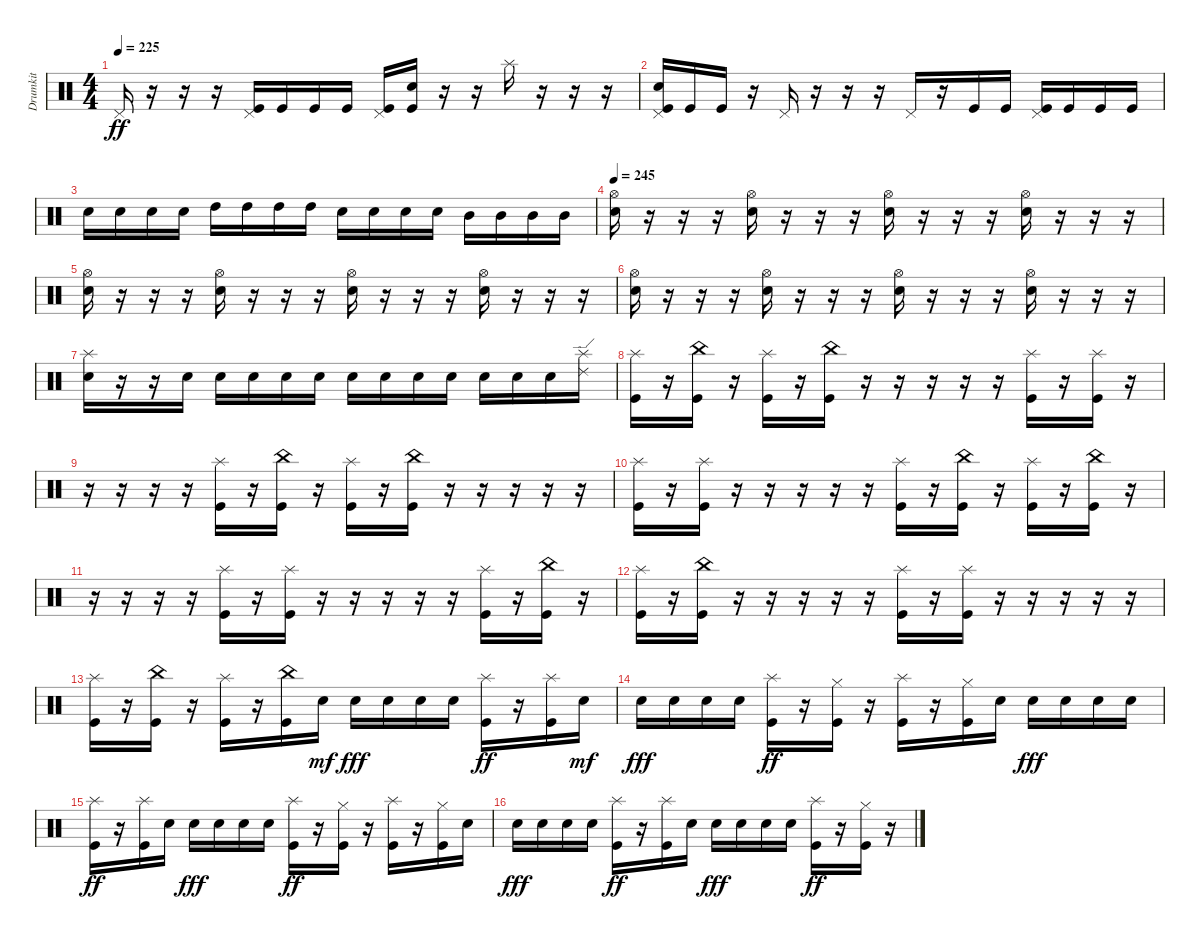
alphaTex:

\track ("Drumkit" "Drumkit") {instrument percussion}
\staff {score}
\articulation defaults
\ts (4 4)
\tempo 225
\clef neutral
\ks c "Pedal Hi-Hat (hit)".16{dy ff}
r.16 r.16 r.16 ("Pedal Hi-Hat (hit)" "Kick (hit)").16 "Kick (hit)".16 "Kick (hit)".16 "Kick (hit)".16 ("Pedal Hi-Hat (hit)" "Kick (hit)").16 ("Kick (hit)" "Snare (hit) 2").16 r.16 r.16 "Splash (hit)".16 r.16 r.16 r.16 |
("Kick (hit)" "Snare (hit) 2" "Pedal Hi-Hat (hit)").16 "Kick (hit)".16 "Kick (hit)".16 r.16 "Pedal Hi-Hat (hit)".16 r.16 r.16 r.16 "Pedal Hi-Hat (hit)".16 r.16 "Kick (hit)".16 "Kick (hit)".16 ("Kick (hit)" "Pedal Hi-Hat (hit)").16 "Kick (hit)".16 "Kick (hit)".16 "Kick (hit)".16 |
"Snare (hit) 2".16 "Snare (hit) 2".16 "Snare (hit) 2".16 "Snare (hit) 2".16 "High Tom (hit)".16 "High Tom (hit)".16 "High Tom (hit)".16 "High Tom (hit)".16 "Snare (hit) 2".16 "Snare (hit) 2".16 "Snare (hit) 2".16 "Snare (hit) 2".16 "Mid Tom (hit)".16 "Mid Tom (hit)".16 "Mid Tom (hit)".16 "Mid Tom (hit)".16 |
\tempo 245
("Hi-Hat (open)" "Snare (hit) 2").16 r.16 r.16 r.16 ("Hi-Hat (open)" "Snare (hit) 2").16 r.16 r.16 r.16 ("Hi-Hat (open)" "Snare (hit) 2").16 r.16 r.16 r.16 ("Hi-Hat (open)" "Snare (hit) 2").16 r.16 r.16 r.16 |
("Hi-Hat (open)" "Snare (hit) 2").16 r.16 r.16 r.16 ("Hi-Hat (open)" "Snare (hit) 2").16 r.16 r.16 r.16 ("Hi-Hat (open)" "Snare (hit) 2").16 r.16 r.16 r.16 ("Hi-Hat (open)" "Snare (hit) 2").16 r.16 r.16 r.16 |
("Hi-Hat (open)" "Snare (hit) 2").16 r.16 r.16 r.16 ("Hi-Hat (open)" "Snare (hit) 2").16 r.16 r.16 r.16 ("Hi-Hat (open)" "Snare (hit) 2").16 r.16 r.16 r.16 ("Hi-Hat (open)" "Snare (hit) 2").16 r.16 r.16 r.16 |
("Splash (hit)" "Snare (hit) 2").16 r.16 r.16 "Snare (hit) 2".16 "Snare (hit) 2".16 "Snare (hit) 2".16 "Snare (hit) 2".16 "Snare (hit) 2".16 "Snare (hit) 2".16 "Snare (hit) 2".16 "Snare (hit) 2".16 "Snare (hit) 2".16 "Snare (hit) 2".16 "Snare (hit) 2".16 "Snare (hit) 2".16 ("Ride (edge) 2" "Splash (hit)").16 |
("Splash (hit)" "Kick (hit)").16 r.16 ("Kick (hit)" "China (hit)").16 r.16 ("Splash (hit)" "Kick (hit)").16 r.16 ("Kick (hit)" "China (hit)").16 r.16 r.16 r.16 r.16 r.16 ("Splash (hit)" "Kick (hit)").16 r.16 ("Splash (hit)" "Kick (hit)").16 r.16 |
r.16 r.16 r.16 r.16 ("Splash (hit)" "Kick (hit)").16 r.16 ("Kick (hit)" "China (hit)").16 r.16 ("Splash (hit)" "Kick (hit)").16 r.16 ("Kick (hit)" "China (hit)").16 r.16 r.16 r.16 r.16 r.16 |
("Splash (hit)" "Kick (hit)").16 r.16 ("Splash (hit)" "Kick (hit)").16 r.16 r.16 r.16 r.16 r.16 ("Splash (hit)" "Kick (hit)").16 r.16 ("Kick (hit)" "China (hit)").16 r.16 ("Splash (hit)" "Kick (hit)").16 r.16 ("Kick (hit)" "China (hit)").16 r.16 |
r.16 r.16 r.16 r.16 ("Splash (hit)" "Kick (hit)").16 r.16 ("Splash (hit)" "Kick (hit)").16 r.16 r.16 r.16 r.16 r.16 ("Splash (hit)" "Kick (hit)").16 r.16 ("Kick (hit)" "China (hit)").16 r.16 |
("Splash (hit)" "Kick (hit)").16 r.16 ("Kick (hit)" "China (hit)").16 r.16 r.16 r.16 r.16 r.16 ("Splash (hit)" "Kick (hit)").16 r.16 ("Splash (hit)" "Kick (hit)").16 r.16 r.16 r.16 r.16 r.16 |
("Splash (hit)" "Kick (hit)").16 r.16 ("Kick (hit)" "China (hit)").16 r.16 ("Splash (hit)" "Kick (hit)").16 r.16 ("Kick (hit)" "China (hit)").16 "Snare (hit) 2".16{dy mf} "Snare (hit) 2".16{dy fff} "Snare (hit) 2".16 "Snare (hit) 2".16 "Snare (hit) 2".16 ("Splash (hit)" "Kick (hit)").16{dy ff} r.16 ("Splash (hit)" "Kick (hit)").16 "Snare (hit) 2".16{dy mf} |
"Snare (hit) 2".16{dy fff} "Snare (hit) 2".16 "Snare (hit) 2".16 "Snare (hit) 2".16 ("Splash (hit)" "Kick (hit)").16{dy ff} r.16 ("Hi-Hat (closed)" "Kick (hit)").16 r.16 ("Splash (hit)" "Kick (hit)").16 r.16 ("Hi-Hat (closed)" "Kick (hit)").16 "Snare (hit) 2".16 "Snare (hit) 2".16{dy fff} "Snare (hit) 2".16 "Snare (hit) 2".16 "Snare (hit) 2".16 |
("Splash (hit)" "Kick (hit)").16{dy ff} r.16 ("Splash (hit)" "Kick (hit)").16 "Snare (hit) 2".16 "Snare (hit) 2".16{dy fff} "Snare (hit) 2".16 "Snare (hit) 2".16 "Snare (hit) 2".16 ("Splash (hit)" "Kick (hit)").16{dy ff} r.16 ("Hi-Hat (closed)" "Kick (hit)").16 r.16 ("Splash (hit)" "Kick (hit)").16 r.16 ("Hi-Hat (closed)" "Kick (hit)").16 "Snare (hit) 2".16 |
"Snare (hit) 2".16{dy fff} "Snare (hit) 2".16 "Snare (hit) 2".16 "Snare (hit) 2".16 ("Splash (hit)" "Kick (hit)").16{dy ff} r.16 ("Splash (hit)" "Kick (hit)").16 "Snare (hit) 2".16 "Snare (hit) 2".16{dy fff} "Snare (hit) 2".16 "Snare (hit) 2".16 "Snare (hit) 2".16 ("Splash (hit)" "Kick (hit)").16{dy ff} r.16 ("Hi-Hat (closed)" "Kick (hit)").16 r.16
